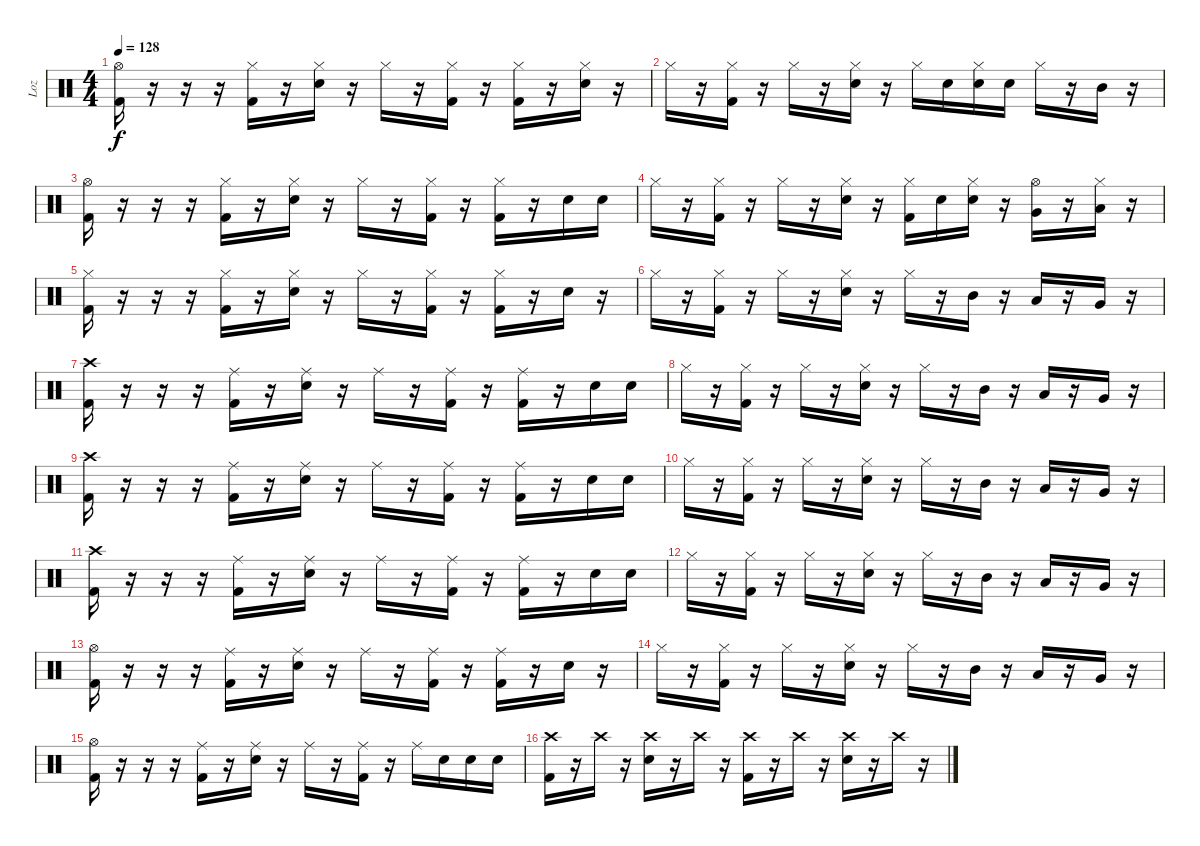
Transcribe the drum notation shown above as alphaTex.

\track ("Loz" "Loz") {instrument percussion}
\staff {score}
\articulation defaults
\ts (4 4)
\tempo 128
\clef neutral
\ks c
("Hi-Hat (open)" "Kick (hit) 2").16{dy f volume 13} r.16 r.16 r.16 ("Hi-Hat (closed)" "Kick (hit) 2").16 r.16 ("Hi-Hat (closed)" "Electric Snare (hit)").16 r.16 "Hi-Hat (closed)".16 r.16 ("Hi-Hat (closed)" "Kick (hit) 2").16 r.16 ("Hi-Hat (closed)" "Kick (hit) 2").16 r.16 ("Hi-Hat (closed)" "Electric Snare (hit)").16 r.16 |
"Hi-Hat (closed)".16 r.16 ("Hi-Hat (closed)" "Kick (hit) 2").16 r.16 "Hi-Hat (closed)".16 r.16 ("Hi-Hat (closed)" "Snare (hit) 2").16 r.16 "Hi-Hat (closed)".16 "Snare (hit) 2".16 ("Hi-Hat (closed)" "Snare (hit) 2").16 "Snare (hit) 2".16 "Hi-Hat (closed)".16 r.16 "Mid Tom (hit)".16 r.16 |
("Hi-Hat (open)" "Kick (hit) 2").16 r.16 r.16 r.16 ("Hi-Hat (closed)" "Kick (hit) 2").16 r.16 ("Hi-Hat (closed)" "Snare (hit) 2").16 r.16 "Hi-Hat (closed)".16 r.16 ("Hi-Hat (closed)" "Kick (hit) 2").16 r.16 ("Hi-Hat (closed)" "Kick (hit) 2").16 r.16 "Snare (hit) 2".16 "Snare (hit) 2".16 |
"Hi-Hat (closed)".16 r.16 ("Hi-Hat (closed)" "Kick (hit) 2").16 r.16 "Hi-Hat (closed)".16 r.16 ("Hi-Hat (closed)" "Snare (hit) 2").16 r.16 ("Hi-Hat (closed)" "Kick (hit) 2").16 "Snare (hit) 2".16 ("Hi-Hat (closed)" "Snare (hit) 2").16 r.16 ("Hi-Hat (open)" "Very Low Tom (hit)").16 r.16 ("Hi-Hat (closed)" "Low Floor Tom (hit)").16 r.16 |
("Hi-Hat (closed)" "Kick (hit) 2").16 r.16 r.16 r.16 ("Hi-Hat (closed)" "Kick (hit) 2").16 r.16 ("Hi-Hat (closed)" "Snare (hit) 2").16 r.16 "Hi-Hat (closed)".16 r.16 ("Hi-Hat (closed)" "Kick (hit) 2").16 r.16 ("Hi-Hat (closed)" "Kick (hit) 2").16 r.16 "Snare (hit) 2".16 r.16 |
"Hi-Hat (closed)".16 r.16 ("Hi-Hat (closed)" "Kick (hit) 2").16 r.16 "Hi-Hat (closed)".16 r.16 ("Hi-Hat (closed)" "Snare (hit) 2").16 r.16 "Hi-Hat (closed)".16 r.16 "Mid Tom (hit)".16 r.16 "Low Tom (hit)".16 r.16 "Very Low Tom (hit)".16 r.16 |
("Crash high (hit)" "Kick (hit) 2").16 r.16 r.16 r.16 ("Ride (middle)" "Kick (hit) 2").16 r.16 ("Ride (middle)" "Snare (hit) 2").16 r.16 "Ride (middle)".16 r.16 ("Ride (middle)" "Kick (hit) 2").16 r.16 ("Ride (middle)" "Kick (hit) 2").16 r.16 "Snare (hit) 2".16 "Snare (hit) 2".16 |
"Hi-Hat (closed)".16 r.16 ("Hi-Hat (closed)" "Kick (hit) 2").16 r.16 "Hi-Hat (closed)".16 r.16 ("Hi-Hat (closed)" "Snare (hit) 2").16 r.16 "Hi-Hat (closed)".16 r.16 "Mid Tom (hit)".16 r.16 "Low Tom (hit)".16 r.16 "Very Low Tom (hit)".16 r.16 |
("Crash high (hit)" "Kick (hit) 2").16 r.16 r.16 r.16 ("Ride (middle)" "Kick (hit) 2").16 r.16 ("Ride (middle)" "Snare (hit) 2").16 r.16 "Ride (middle)".16 r.16 ("Ride (middle)" "Kick (hit) 2").16 r.16 ("Ride (middle)" "Kick (hit) 2").16 r.16 "Snare (hit) 2".16 "Snare (hit) 2".16 |
"Hi-Hat (closed)".16 r.16 ("Hi-Hat (closed)" "Kick (hit) 2").16 r.16 "Hi-Hat (closed)".16 r.16 ("Hi-Hat (closed)" "Snare (hit) 2").16 r.16 "Hi-Hat (closed)".16 r.16 "Mid Tom (hit)".16 r.16 "Low Tom (hit)".16 r.16 "Very Low Tom (hit)".16 r.16 |
("Crash high (hit)" "Kick (hit) 2").16 r.16 r.16 r.16 ("Ride (middle)" "Kick (hit) 2").16 r.16 ("Ride (middle)" "Snare (hit) 2").16 r.16 "Ride (middle)".16 r.16 ("Ride (middle)" "Kick (hit) 2").16 r.16 ("Ride (middle)" "Kick (hit) 2").16 r.16 "Snare (hit) 2".16 "Snare (hit) 2".16 |
"Hi-Hat (closed)".16 r.16 ("Hi-Hat (closed)" "Kick (hit) 2").16 r.16 "Hi-Hat (closed)".16 r.16 ("Hi-Hat (closed)" "Snare (hit) 2").16 r.16 "Hi-Hat (closed)".16 r.16 "Mid Tom (hit)".16 r.16 "Low Tom (hit)".16 r.16 "Very Low Tom (hit)".16 r.16 |
("Hi-Hat (open)" "Kick (hit) 2").16 r.16 r.16 r.16 ("Ride (middle)" "Kick (hit) 2").16 r.16 ("Ride (middle)" "Snare (hit) 2").16 r.16 "Ride (middle)".16 r.16 ("Ride (middle)" "Kick (hit) 2").16 r.16 ("Ride (middle)" "Kick (hit) 2").16 r.16 "Snare (hit) 2".16 r.16 |
"Hi-Hat (closed)".16 r.16 ("Hi-Hat (closed)" "Kick (hit) 2").16 r.16 "Hi-Hat (closed)".16 r.16 ("Hi-Hat (closed)" "Snare (hit) 2").16 r.16 "Hi-Hat (closed)".16 r.16 "Mid Tom (hit)".16 r.16 "Low Tom (hit)".16 r.16 "Very Low Tom (hit)".16 r.16 |
("Hi-Hat (open)" "Kick (hit) 2").16 r.16 r.16 r.16 ("Ride (middle)" "Kick (hit) 2").16 r.16 ("Ride (middle)" "Snare (hit) 2").16 r.16 "Ride (middle)".16 r.16 ("Ride (middle)" "Kick (hit) 2").16 r.16 "Ride (middle)".16 "Snare (hit) 2".16 "Snare (hit) 2".16 "Snare (hit) 2".16 |
("Crash high (hit)" "Kick (hit) 2").16 r.16 "Crash high (hit)".16 r.16 ("Crash high (hit)" "Snare (hit) 2").16 r.16 "Crash high (hit)".16 r.16 ("Crash high (hit)" "Kick (hit) 2").16 r.16 "Crash high (hit)".16 r.16 ("Crash high (hit)" "Snare (hit) 2").16 r.16 "Crash high (hit)".16 r.16
